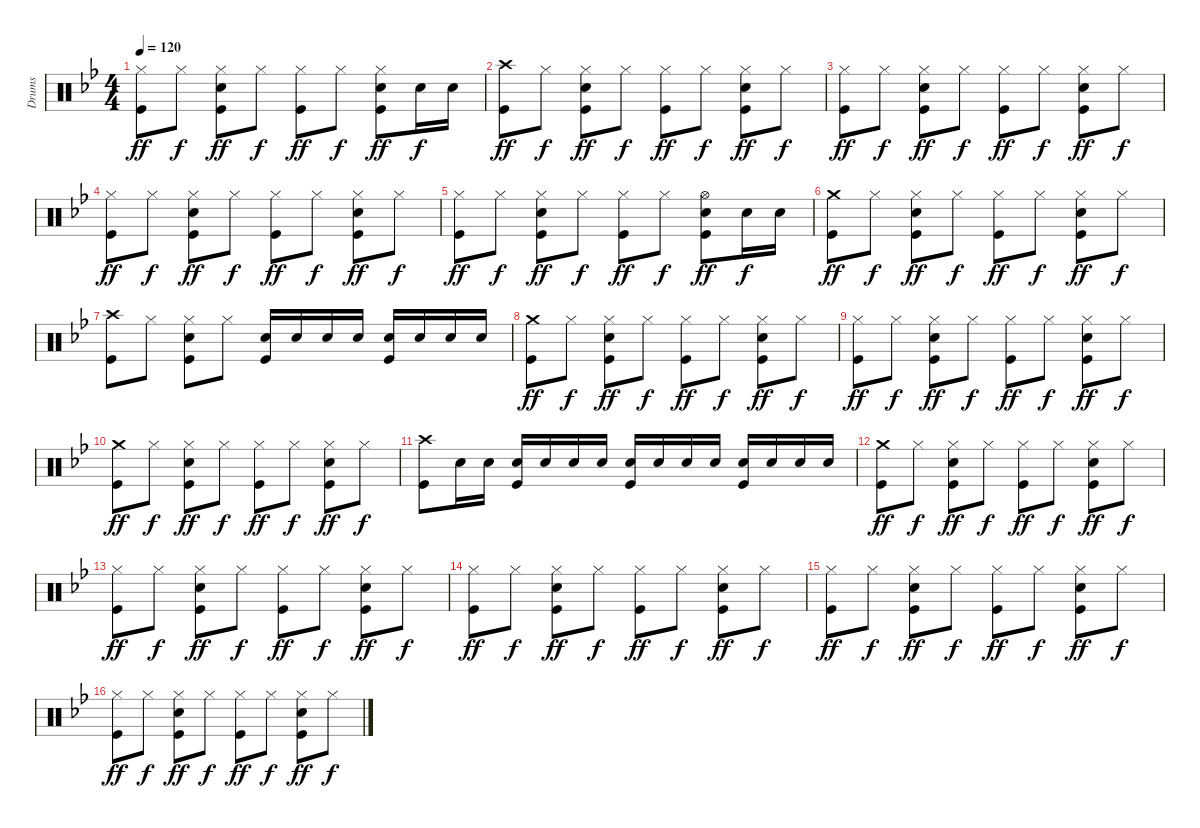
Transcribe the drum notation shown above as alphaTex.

\track ("Drums" "Drums") {instrument percussion}
\staff {score}
\articulation defaults
\ts (4 4)
\tempo 120
\clef neutral
\ks bb
("Hi-Hat (closed)" "Kick (hit)").8{dy ff} "Hi-Hat (closed)".8{dy f} ("Hi-Hat (closed)" "Snare (hit) 2" "Kick (hit)").8{dy ff} "Hi-Hat (closed)".8{dy f} ("Hi-Hat (closed)" "Kick (hit)").8{dy ff} "Hi-Hat (closed)".8{dy f} ("Hi-Hat (closed)" "Snare (hit) 2" "Kick (hit)").8{dy ff} "Snare (hit) 2".16{dy f} "Snare (hit) 2".16 |
("Crash high (hit)" "Kick (hit)").8{dy ff} "Hi-Hat (closed)".8{dy f} ("Hi-Hat (closed)" "Snare (hit) 2" "Kick (hit)").8{dy ff} "Hi-Hat (closed)".8{dy f} ("Hi-Hat (closed)" "Kick (hit)").8{dy ff} "Hi-Hat (closed)".8{dy f} ("Hi-Hat (closed)" "Snare (hit) 2" "Kick (hit)").8{dy ff} "Hi-Hat (closed)".8{dy f} |
("Hi-Hat (closed)" "Kick (hit)").8{dy ff} "Hi-Hat (closed)".8{dy f} ("Hi-Hat (closed)" "Snare (hit) 2" "Kick (hit)").8{dy ff} "Hi-Hat (closed)".8{dy f} ("Hi-Hat (closed)" "Kick (hit)").8{dy ff} "Hi-Hat (closed)".8{dy f} ("Hi-Hat (closed)" "Snare (hit) 2" "Kick (hit)").8{dy ff} "Hi-Hat (closed)".8{dy f} |
("Hi-Hat (closed)" "Kick (hit)").8{dy ff} "Hi-Hat (closed)".8{dy f} ("Hi-Hat (closed)" "Snare (hit) 2" "Kick (hit)").8{dy ff} "Hi-Hat (closed)".8{dy f} ("Hi-Hat (closed)" "Kick (hit)").8{dy ff} "Hi-Hat (closed)".8{dy f} ("Hi-Hat (closed)" "Snare (hit) 2" "Kick (hit)").8{dy ff} "Hi-Hat (closed)".8{dy f} |
("Hi-Hat (closed)" "Kick (hit)").8{dy ff} "Hi-Hat (closed)".8{dy f} ("Hi-Hat (closed)" "Snare (hit) 2" "Kick (hit)").8{dy ff} "Hi-Hat (closed)".8{dy f} ("Hi-Hat (closed)" "Kick (hit)").8{dy ff} "Hi-Hat (closed)".8{dy f} ("Hi-Hat (open)" "Snare (hit) 2" "Kick (hit)").8{dy ff} "Snare (hit) 2".16{dy f} "Snare (hit) 2".16 |
("Crash medium (hit)" "Kick (hit)").8{dy ff} "Hi-Hat (closed)".8{dy f} ("Hi-Hat (closed)" "Snare (hit) 2" "Kick (hit)").8{dy ff} "Hi-Hat (closed)".8{dy f} ("Hi-Hat (closed)" "Kick (hit)").8{dy ff} "Hi-Hat (closed)".8{dy f} ("Hi-Hat (closed)" "Snare (hit) 2" "Kick (hit)").8{dy ff} "Hi-Hat (closed)".8{dy f} |
("Crash high (hit)" "Kick (hit)").8 "Hi-Hat (closed)".8 ("Hi-Hat (closed)" "Snare (hit) 2" "Kick (hit)").8 "Hi-Hat (closed)".8 ("Snare (hit) 2" "Kick (hit)").16 "Snare (hit) 2".16 "Snare (hit) 2".16 "Snare (hit) 2".16 ("Snare (hit) 2" "Kick (hit)").16 "Snare (hit) 2".16 "Snare (hit) 2".16 "Snare (hit) 2".16 |
("Crash medium (hit)" "Kick (hit)").8{dy ff} "Hi-Hat (closed)".8{dy f} ("Hi-Hat (closed)" "Snare (hit) 2" "Kick (hit)").8{dy ff} "Hi-Hat (closed)".8{dy f} ("Hi-Hat (closed)" "Kick (hit)").8{dy ff} "Hi-Hat (closed)".8{dy f} ("Hi-Hat (closed)" "Snare (hit) 2" "Kick (hit)").8{dy ff} "Hi-Hat (closed)".8{dy f} |
("Hi-Hat (closed)" "Kick (hit)").8{dy ff} "Hi-Hat (closed)".8{dy f} ("Hi-Hat (closed)" "Snare (hit) 2" "Kick (hit)").8{dy ff} "Hi-Hat (closed)".8{dy f} ("Hi-Hat (closed)" "Kick (hit)").8{dy ff} "Hi-Hat (closed)".8{dy f} ("Hi-Hat (closed)" "Snare (hit) 2" "Kick (hit)").8{dy ff} "Hi-Hat (closed)".8{dy f} |
("Crash medium (hit)" "Kick (hit)").8{dy ff} "Hi-Hat (closed)".8{dy f} ("Hi-Hat (closed)" "Snare (hit) 2" "Kick (hit)").8{dy ff} "Hi-Hat (closed)".8{dy f} ("Hi-Hat (closed)" "Kick (hit)").8{dy ff} "Hi-Hat (closed)".8{dy f} ("Hi-Hat (closed)" "Snare (hit) 2" "Kick (hit)").8{dy ff} "Hi-Hat (closed)".8{dy f} |
("Crash high (hit)" "Kick (hit)").8 "Snare (hit) 2".16 "Snare (hit) 2".16 ("Snare (hit) 2" "Kick (hit)").16 "Snare (hit) 2".16 "Snare (hit) 2".16 "Snare (hit) 2".16 ("Snare (hit) 2" "Kick (hit)").16 "Snare (hit) 2".16 "Snare (hit) 2".16 "Snare (hit) 2".16 ("Snare (hit) 2" "Kick (hit)").16 "Snare (hit) 2".16 "Snare (hit) 2".16 "Snare (hit) 2".16 |
("Crash medium (hit)" "Kick (hit)").8{dy ff} "Hi-Hat (closed)".8{dy f} ("Hi-Hat (closed)" "Snare (hit) 2" "Kick (hit)").8{dy ff} "Hi-Hat (closed)".8{dy f} ("Hi-Hat (closed)" "Kick (hit)").8{dy ff} "Hi-Hat (closed)".8{dy f} ("Hi-Hat (closed)" "Snare (hit) 2" "Kick (hit)").8{dy ff} "Hi-Hat (closed)".8{dy f} |
("Hi-Hat (closed)" "Kick (hit)").8{dy ff} "Hi-Hat (closed)".8{dy f} ("Hi-Hat (closed)" "Snare (hit) 2" "Kick (hit)").8{dy ff} "Hi-Hat (closed)".8{dy f} ("Hi-Hat (closed)" "Kick (hit)").8{dy ff} "Hi-Hat (closed)".8{dy f} ("Hi-Hat (closed)" "Snare (hit) 2" "Kick (hit)").8{dy ff} "Hi-Hat (closed)".8{dy f} |
("Hi-Hat (closed)" "Kick (hit)").8{dy ff} "Hi-Hat (closed)".8{dy f} ("Hi-Hat (closed)" "Snare (hit) 2" "Kick (hit)").8{dy ff} "Hi-Hat (closed)".8{dy f} ("Hi-Hat (closed)" "Kick (hit)").8{dy ff} "Hi-Hat (closed)".8{dy f} ("Hi-Hat (closed)" "Snare (hit) 2" "Kick (hit)").8{dy ff} "Hi-Hat (closed)".8{dy f} |
("Hi-Hat (closed)" "Kick (hit)").8{dy ff} "Hi-Hat (closed)".8{dy f} ("Hi-Hat (closed)" "Snare (hit) 2" "Kick (hit)").8{dy ff} "Hi-Hat (closed)".8{dy f} ("Hi-Hat (closed)" "Kick (hit)").8{dy ff} "Hi-Hat (closed)".8{dy f} ("Hi-Hat (closed)" "Snare (hit) 2" "Kick (hit)").8{dy ff} "Hi-Hat (closed)".8{dy f} |
("Hi-Hat (closed)" "Kick (hit)").8{dy ff} "Hi-Hat (closed)".8{dy f} ("Hi-Hat (closed)" "Snare (hit) 2" "Kick (hit)").8{dy ff} "Hi-Hat (closed)".8{dy f} ("Hi-Hat (closed)" "Kick (hit)").8{dy ff} "Hi-Hat (closed)".8{dy f} ("Hi-Hat (closed)" "Snare (hit) 2" "Kick (hit)").8{dy ff} "Hi-Hat (closed)".8{dy f}
